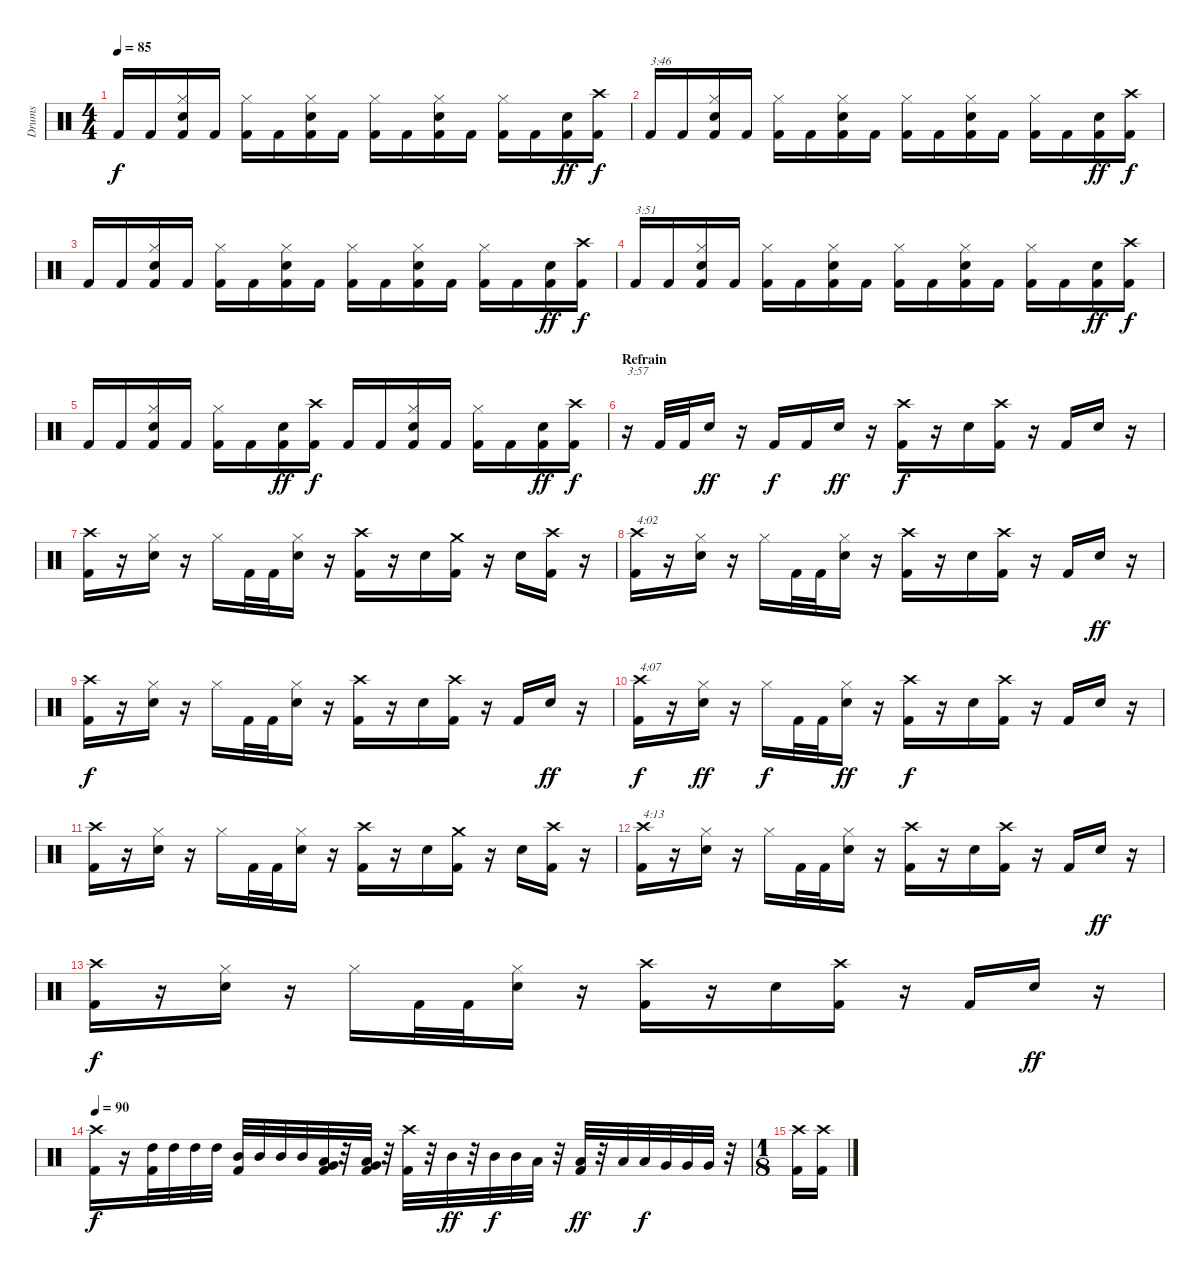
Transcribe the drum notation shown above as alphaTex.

\track ("Drums" "Drums") {instrument percussion}
\staff {score}
\articulation defaults
\ts (4 4)
\tempo 85
\clef neutral
\ks c "Kick (hit) 2".16{dy f} "Kick (hit) 2".16
("Hi-Hat (closed)" "Snare (hit) 2" "Kick (hit) 2").16 "Kick (hit) 2".16 ("Hi-Hat (closed)" "Kick (hit) 2").16 "Kick (hit) 2".16 ("Hi-Hat (closed)" "Snare (hit) 2" "Kick (hit) 2").16 "Kick (hit) 2".16 ("Hi-Hat (closed)" "Kick (hit) 2").16 "Kick (hit) 2".16 ("Hi-Hat (closed)" "Snare (hit) 2" "Kick (hit) 2").16 "Kick (hit) 2".16 ("Hi-Hat (closed)" "Kick (hit) 2").16 "Kick (hit) 2".16 ("Snare (hit) 2" "Kick (hit) 2").16{dy ff} ("Crash high (hit)" "Kick (hit) 2").16{dy f} |
"Kick (hit) 2".16{txt "3:46"} "Kick (hit) 2".16 ("Hi-Hat (closed)" "Snare (hit) 2" "Kick (hit) 2").16 "Kick (hit) 2".16 ("Hi-Hat (closed)" "Kick (hit) 2").16 "Kick (hit) 2".16 ("Hi-Hat (closed)" "Snare (hit) 2" "Kick (hit) 2").16 "Kick (hit) 2".16 ("Hi-Hat (closed)" "Kick (hit) 2").16 "Kick (hit) 2".16 ("Hi-Hat (closed)" "Snare (hit) 2" "Kick (hit) 2").16 "Kick (hit) 2".16 ("Hi-Hat (closed)" "Kick (hit) 2").16 "Kick (hit) 2".16 ("Snare (hit) 2" "Kick (hit) 2").16{dy ff} ("Crash high (hit)" "Kick (hit) 2").16{dy f} |
"Kick (hit) 2".16 "Kick (hit) 2".16 ("Hi-Hat (closed)" "Snare (hit) 2" "Kick (hit) 2").16 "Kick (hit) 2".16 ("Hi-Hat (closed)" "Kick (hit) 2").16 "Kick (hit) 2".16 ("Hi-Hat (closed)" "Snare (hit) 2" "Kick (hit) 2").16 "Kick (hit) 2".16 ("Hi-Hat (closed)" "Kick (hit) 2").16 "Kick (hit) 2".16 ("Hi-Hat (closed)" "Snare (hit) 2" "Kick (hit) 2").16 "Kick (hit) 2".16 ("Hi-Hat (closed)" "Kick (hit) 2").16 "Kick (hit) 2".16 ("Snare (hit) 2" "Kick (hit) 2").16{dy ff} ("Crash high (hit)" "Kick (hit) 2").16{dy f} |
"Kick (hit) 2".16{txt "3:51"} "Kick (hit) 2".16 ("Hi-Hat (closed)" "Snare (hit) 2" "Kick (hit) 2").16 "Kick (hit) 2".16 ("Hi-Hat (closed)" "Kick (hit) 2").16 "Kick (hit) 2".16 ("Hi-Hat (closed)" "Snare (hit) 2" "Kick (hit) 2").16 "Kick (hit) 2".16 ("Hi-Hat (closed)" "Kick (hit) 2").16 "Kick (hit) 2".16 ("Hi-Hat (closed)" "Snare (hit) 2" "Kick (hit) 2").16 "Kick (hit) 2".16 ("Hi-Hat (closed)" "Kick (hit) 2").16 "Kick (hit) 2".16 ("Snare (hit) 2" "Kick (hit) 2").16{dy ff} ("Crash high (hit)" "Kick (hit) 2").16{dy f} |
"Kick (hit) 2".16 "Kick (hit) 2".16 ("Hi-Hat (closed)" "Snare (hit) 2" "Kick (hit) 2").16 "Kick (hit) 2".16 ("Hi-Hat (closed)" "Kick (hit) 2").16 "Kick (hit) 2".16 ("Snare (hit) 2" "Kick (hit) 2").16{dy ff} ("Crash high (hit)" "Kick (hit) 2").16{dy f} "Kick (hit) 2".16 "Kick (hit) 2".16 ("Hi-Hat (closed)" "Snare (hit) 2" "Kick (hit) 2").16 "Kick (hit) 2".16 ("Hi-Hat (closed)" "Kick (hit) 2").16 "Kick (hit) 2".16 ("Snare (hit) 2" "Kick (hit) 2").16{dy ff} ("Crash high (hit)" "Kick (hit) 2").16{dy f} |
\section ("" "Refrain")
r.16{txt "3:57"} "Kick (hit) 2".32 "Kick (hit) 2".32 "Snare (hit) 2".16{dy ff} r.16 "Kick (hit) 2".16{dy f} "Kick (hit) 2".16 "Snare (hit) 2".16{dy ff} r.16 ("Crash high (hit)" "Kick (hit) 2").16{dy f} r.16 "Snare (hit) 2".16 ("Crash high (hit)" "Kick (hit) 2").16 r.16 "Kick (hit) 2".16 "Snare (hit) 2".16 r.16 |
("Crash high (hit)" "Kick (hit) 2").16 r.16 ("Hi-Hat (closed)" "Snare (hit) 2").16 r.16 "Hi-Hat (closed)".16 "Kick (hit) 2".32 "Kick (hit) 2".32 ("Hi-Hat (closed)" "Snare (hit) 2").16 r.16 ("Crash high (hit)" "Kick (hit) 2").16 r.16 "Snare (hit) 2".16 ("Crash medium (hit)" "Kick (hit) 2").16 r.16 "Snare (hit) 2".16 ("Crash high (hit)" "Kick (hit) 2").16 r.16 |
("Crash high (hit)" "Kick (hit) 2").16{txt "4:02"} r.16 ("Hi-Hat (closed)" "Snare (hit) 2").16 r.16 "Hi-Hat (closed)".16 "Kick (hit) 2".32 "Kick (hit) 2".32 ("Hi-Hat (closed)" "Snare (hit) 2").16 r.16 ("Crash high (hit)" "Kick (hit) 2").16 r.16 "Snare (hit) 2".16 ("Crash high (hit)" "Kick (hit) 2").16 r.16 "Kick (hit) 2".16 "Snare (hit) 2".16{dy ff} r.16 |
("Crash high (hit)" "Kick (hit) 2").16{dy f} r.16 ("Hi-Hat (closed)" "Snare (hit) 2").16 r.16 "Hi-Hat (closed)".16 "Kick (hit) 2".32 "Kick (hit) 2".32 ("Hi-Hat (closed)" "Snare (hit) 2").16 r.16 ("Crash high (hit)" "Kick (hit) 2").16 r.16 "Snare (hit) 2".16 ("Crash high (hit)" "Kick (hit) 2").16 r.16 "Kick (hit) 2".16 "Snare (hit) 2".16{dy ff} r.16 |
("Crash high (hit)" "Kick (hit) 2").16{txt "4:07" dy f} r.16 ("Hi-Hat (closed)" "Snare (hit) 2").16{dy ff} r.16 "Hi-Hat (closed)".16{dy f} "Kick (hit) 2".32 "Kick (hit) 2".32 ("Hi-Hat (closed)" "Snare (hit) 2").16{dy ff} r.16 ("Crash high (hit)" "Kick (hit) 2").16{dy f} r.16 "Snare (hit) 2".16 ("Crash high (hit)" "Kick (hit) 2").16 r.16 "Kick (hit) 2".16 "Snare (hit) 2".16 r.16 |
("Crash high (hit)" "Kick (hit) 2").16 r.16 ("Hi-Hat (closed)" "Snare (hit) 2").16 r.16 "Hi-Hat (closed)".16 "Kick (hit) 2".32 "Kick (hit) 2".32 ("Hi-Hat (closed)" "Snare (hit) 2").16 r.16 ("Crash high (hit)" "Kick (hit) 2").16 r.16 "Snare (hit) 2".16 ("Crash medium (hit)" "Kick (hit) 2").16 r.16 "Snare (hit) 2".16 ("Crash high (hit)" "Kick (hit) 2").16 r.16 |
("Crash high (hit)" "Kick (hit) 2").16{txt "4:13"} r.16 ("Hi-Hat (closed)" "Snare (hit) 2").16 r.16 "Hi-Hat (closed)".16 "Kick (hit) 2".32 "Kick (hit) 2".32 ("Hi-Hat (closed)" "Snare (hit) 2").16 r.16 ("Crash high (hit)" "Kick (hit) 2").16 r.16 "Snare (hit) 2".16 ("Crash high (hit)" "Kick (hit) 2").16 r.16 "Kick (hit) 2".16 "Snare (hit) 2".16{dy ff} r.16 |
("Crash high (hit)" "Kick (hit) 2").16{dy f} r.16 ("Hi-Hat (closed)" "Snare (hit) 2").16 r.16 "Hi-Hat (closed)".16 "Kick (hit) 2".32 "Kick (hit) 2".32 ("Hi-Hat (closed)" "Snare (hit) 2").16 r.16 ("Crash high (hit)" "Kick (hit) 2").16 r.16 "Snare (hit) 2".16 ("Crash high (hit)" "Kick (hit) 2").16 r.16 "Kick (hit) 2".16 "Snare (hit) 2".16{dy ff} r.16 |
\tempo 90
("Crash high (hit)" "Kick (hit) 2").16{dy f} r.16 ("High Tom (hit)" "Kick (hit) 2").32 "High Tom (hit)".32 "High Tom (hit)".32 "High Tom (hit)".32 ("Mid Tom (hit)" "Kick (hit) 2").32 "Mid Tom (hit)".32 "Mid Tom (hit)".32 "Mid Tom (hit)".32 ("Very Low Tom (hit)" "Low Tom (hit)" "Kick (hit) 2").32 r.32 ("Very Low Tom (hit)" "Low Tom (hit)" "Kick (hit) 2").32 r.32 ("Crash high (hit)" "Kick (hit) 2").32 r.32 "Mid Tom (hit)".32{dy ff} r.32 "Mid Tom (hit)".32{dy f} "Mid Tom (hit)".32 "Low Tom (hit)".32 r.32 ("Low Tom (hit)" "Kick (hit) 2").32{dy ff} r.32 "Low Tom (hit)".32 "Low Tom (hit)".32{dy f} "Very Low Tom (hit)".32 "Very Low Tom (hit)".32 "Very Low Tom (hit)".32 r.32 |
\ts (1 8)
("Crash high (hit)" "Kick (hit) 2").16 ("Crash high (hit)" "Kick (hit) 2").16
